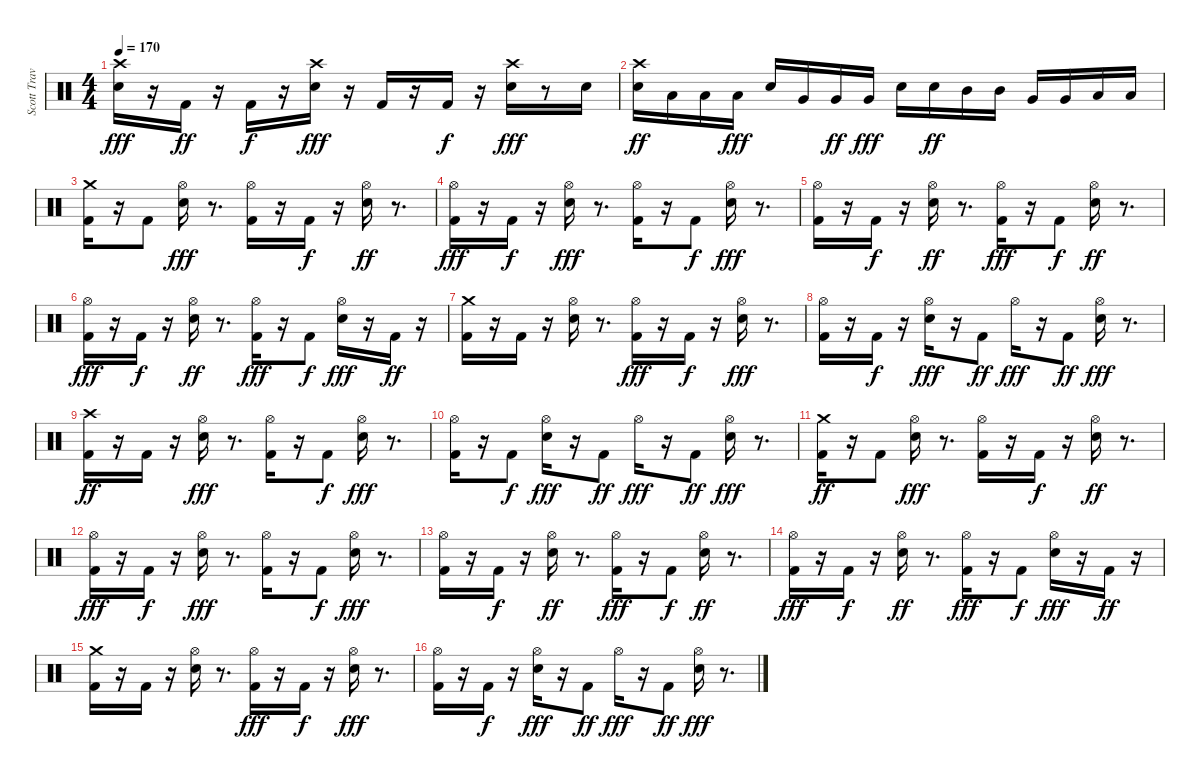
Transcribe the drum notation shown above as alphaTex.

\track ("Scott Travis" "Scott Trav") {instrument percussion}
\staff {score}
\articulation defaults
\ts (4 4)
\tempo 170
\clef neutral
\ks c
("Crash high (hit)" "Snare (hit) 2").16{dy fff} r.16 "Kick (hit) 2".16{dy ff} r.16 "Kick (hit) 2".16{dy f} r.16 ("Crash high (hit)" "Snare (hit) 2").16{dy fff} r.16 "Kick (hit) 2".16 r.16 "Kick (hit) 2".16{dy f} r.16 ("Crash high (hit)" "Snare (hit) 2").16{dy fff} r.8 "Snare (hit) 2".16 |
("Crash high (hit)" "Snare (hit) 2").16{dy ff} "Low Tom (hit)".16 "Low Tom (hit)".16 "Low Tom (hit)".16{dy fff} "Snare (hit) 2".16 "Very Low Tom (hit)".16 "Very Low Tom (hit)".16{dy ff} "Very Low Tom (hit)".16{dy fff} "Snare (hit) 2".16 "Snare (hit) 2".16{dy ff} "Mid Tom (hit)".16 "Mid Tom (hit)".16 "Very Low Tom (hit)".16 "Very Low Tom (hit)".16 "Low Floor Tom (hit)".16 "Low Floor Tom (hit)".16 |
("Kick (hit) 2" "Crash medium (hit)").16 r.16 "Kick (hit) 2".8 ("Hi-Hat (open)" "Snare (hit) 2").16{dy fff} r.8{d} ("Kick (hit) 2" "Hi-Hat (open)").16 r.16 "Kick (hit) 2".16{dy f} r.16 ("Hi-Hat (open)" "Snare (hit) 2").16{dy ff} r.8{d} |
("Hi-Hat (open)" "Kick (hit) 2").16{dy fff} r.16 "Kick (hit) 2".16{dy f} r.16 ("Snare (hit) 2" "Hi-Hat (open)").16{dy fff} r.8{d} ("Kick (hit) 2" "Hi-Hat (open)").16 r.16 "Kick (hit) 2".8{dy f} ("Snare (hit) 2" "Hi-Hat (open)").16{dy fff} r.8{d} |
("Kick (hit) 2" "Hi-Hat (open)").16 r.16 "Kick (hit) 2".16{dy f} r.16 ("Hi-Hat (open)" "Snare (hit) 2").16{dy ff} r.8{d} ("Kick (hit) 2" "Hi-Hat (open)").16{dy fff} r.16 "Kick (hit) 2".8{dy f} ("Hi-Hat (open)" "Snare (hit) 2").16{dy ff} r.8{d} |
("Kick (hit) 2" "Hi-Hat (open)").16{dy fff} r.16 "Kick (hit) 2".16{dy f} r.16 ("Hi-Hat (open)" "Snare (hit) 2").16{dy ff} r.8{d} ("Kick (hit) 2" "Hi-Hat (open)").16{dy fff} r.16 "Kick (hit) 2".8{dy f} ("Snare (hit) 2" "Hi-Hat (open)").16{dy fff} r.16 "Kick (hit) 2".16{dy ff} r.16 |
("Crash medium (hit)" "Kick (hit) 2").16 r.16 "Kick (hit) 2".16 r.16 ("Snare (hit) 2" "Hi-Hat (open)").16 r.8{d} ("Kick (hit) 2" "Hi-Hat (open)").16{dy fff} r.16 "Kick (hit) 2".16{dy f} r.16 ("Snare (hit) 2" "Hi-Hat (open)").16{dy fff} r.8{d} |
("Kick (hit) 2" "Hi-Hat (open)").16 r.16 "Kick (hit) 2".16{dy f} r.16 ("Snare (hit) 2" "Hi-Hat (open)").16{dy fff} r.16 "Kick (hit) 2".8{dy ff} "Hi-Hat (open)".16{dy fff} r.16 "Kick (hit) 2".8{dy ff} ("Snare (hit) 2" "Hi-Hat (open)").16{dy fff} r.8{d} |
("Crash high (hit)" "Kick (hit) 2").16{dy ff} r.16 "Kick (hit) 2".16 r.16 ("Hi-Hat (open)" "Snare (hit) 2").16{dy fff} r.8{d} ("Kick (hit) 2" "Hi-Hat (open)").16 r.16 "Kick (hit) 2".8{dy f} ("Snare (hit) 2" "Hi-Hat (open)").16{dy fff} r.8{d} |
("Kick (hit) 2" "Hi-Hat (open)").16 r.16 "Kick (hit) 2".8{dy f} ("Snare (hit) 2" "Hi-Hat (open)").16{dy fff} r.16 "Kick (hit) 2".8{dy ff} "Hi-Hat (open)".16{dy fff} r.16 "Kick (hit) 2".8{dy ff} ("Snare (hit) 2" "Hi-Hat (open)").16{dy fff} r.8{d} |
("Kick (hit) 2" "Crash medium (hit)").16{dy ff} r.16 "Kick (hit) 2".8 ("Hi-Hat (open)" "Snare (hit) 2").16{dy fff} r.8{d} ("Kick (hit) 2" "Hi-Hat (open)").16 r.16 "Kick (hit) 2".16{dy f} r.16 ("Hi-Hat (open)" "Snare (hit) 2").16{dy ff} r.8{d} |
("Hi-Hat (open)" "Kick (hit) 2").16{dy fff} r.16 "Kick (hit) 2".16{dy f} r.16 ("Snare (hit) 2" "Hi-Hat (open)").16{dy fff} r.8{d} ("Kick (hit) 2" "Hi-Hat (open)").16 r.16 "Kick (hit) 2".8{dy f} ("Snare (hit) 2" "Hi-Hat (open)").16{dy fff} r.8{d} |
("Kick (hit) 2" "Hi-Hat (open)").16 r.16 "Kick (hit) 2".16{dy f} r.16 ("Hi-Hat (open)" "Snare (hit) 2").16{dy ff} r.8{d} ("Kick (hit) 2" "Hi-Hat (open)").16{dy fff} r.16 "Kick (hit) 2".8{dy f} ("Hi-Hat (open)" "Snare (hit) 2").16{dy ff} r.8{d} |
("Kick (hit) 2" "Hi-Hat (open)").16{dy fff} r.16 "Kick (hit) 2".16{dy f} r.16 ("Hi-Hat (open)" "Snare (hit) 2").16{dy ff} r.8{d} ("Kick (hit) 2" "Hi-Hat (open)").16{dy fff} r.16 "Kick (hit) 2".8{dy f} ("Snare (hit) 2" "Hi-Hat (open)").16{dy fff} r.16 "Kick (hit) 2".16{dy ff} r.16 |
("Crash medium (hit)" "Kick (hit) 2").16 r.16 "Kick (hit) 2".16 r.16 ("Snare (hit) 2" "Hi-Hat (open)").16 r.8{d} ("Kick (hit) 2" "Hi-Hat (open)").16{dy fff} r.16 "Kick (hit) 2".16{dy f} r.16 ("Snare (hit) 2" "Hi-Hat (open)").16{dy fff} r.8{d} |
("Kick (hit) 2" "Hi-Hat (open)").16 r.16 "Kick (hit) 2".16{dy f} r.16 ("Snare (hit) 2" "Hi-Hat (open)").16{dy fff} r.16 "Kick (hit) 2".8{dy ff} "Hi-Hat (open)".16{dy fff} r.16 "Kick (hit) 2".8{dy ff} ("Snare (hit) 2" "Hi-Hat (open)").16{dy fff} r.8{d}
